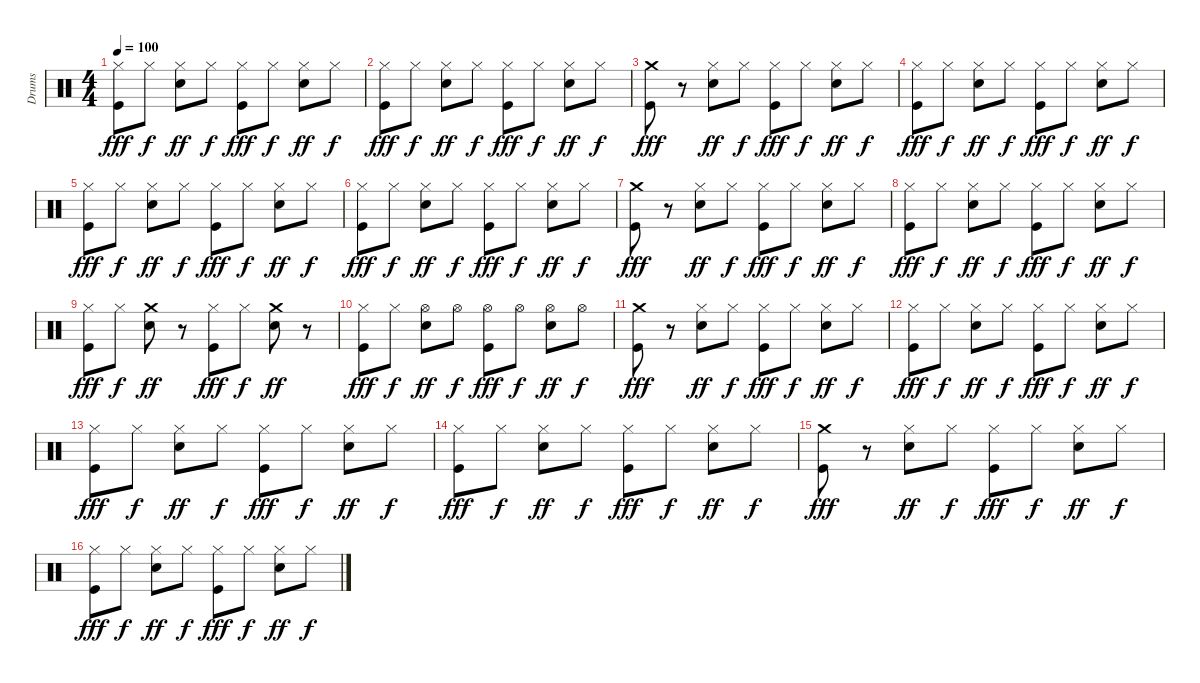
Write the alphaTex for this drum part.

\track ("Drums" "Drums") {instrument percussion}
\staff {score}
\articulation defaults
\ts (4 4)
\tempo 100
\clef neutral
\ks c
("Kick (hit)" "Hi-Hat (closed)").8{dy fff} "Hi-Hat (closed)".8{dy f} ("Snare (hit) 2" "Hi-Hat (closed)").8{dy ff} "Hi-Hat (closed)".8{dy f} ("Kick (hit)" "Hi-Hat (closed)").8{dy fff} "Hi-Hat (closed)".8{dy f} ("Snare (hit) 2" "Hi-Hat (closed)").8{dy ff} "Hi-Hat (closed)".8{dy f} |
("Kick (hit)" "Hi-Hat (closed)").8{dy fff} "Hi-Hat (closed)".8{dy f} ("Snare (hit) 2" "Hi-Hat (closed)").8{dy ff} "Hi-Hat (closed)".8{dy f} ("Kick (hit)" "Hi-Hat (closed)").8{dy fff} "Hi-Hat (closed)".8{dy f} ("Snare (hit) 2" "Hi-Hat (closed)").8{dy ff} "Hi-Hat (closed)".8{dy f} |
("Kick (hit)" "Crash medium (hit)").8{dy fff} r.8 ("Snare (hit) 2" "Hi-Hat (closed)").8{dy ff} "Hi-Hat (closed)".8{dy f} ("Kick (hit)" "Hi-Hat (closed)").8{dy fff} "Hi-Hat (closed)".8{dy f} ("Snare (hit) 2" "Hi-Hat (closed)").8{dy ff} "Hi-Hat (closed)".8{dy f} |
("Kick (hit)" "Hi-Hat (closed)").8{dy fff} "Hi-Hat (closed)".8{dy f} ("Snare (hit) 2" "Hi-Hat (closed)").8{dy ff} "Hi-Hat (closed)".8{dy f} ("Kick (hit)" "Hi-Hat (closed)").8{dy fff} "Hi-Hat (closed)".8{dy f} ("Snare (hit) 2" "Hi-Hat (closed)").8{dy ff} "Hi-Hat (closed)".8{dy f} |
("Kick (hit)" "Hi-Hat (closed)").8{dy fff} "Hi-Hat (closed)".8{dy f} ("Snare (hit) 2" "Hi-Hat (closed)").8{dy ff} "Hi-Hat (closed)".8{dy f} ("Kick (hit)" "Hi-Hat (closed)").8{dy fff} "Hi-Hat (closed)".8{dy f} ("Snare (hit) 2" "Hi-Hat (closed)").8{dy ff} "Hi-Hat (closed)".8{dy f} |
("Kick (hit)" "Hi-Hat (closed)").8{dy fff} "Hi-Hat (closed)".8{dy f} ("Snare (hit) 2" "Hi-Hat (closed)").8{dy ff} "Hi-Hat (closed)".8{dy f} ("Kick (hit)" "Hi-Hat (closed)").8{dy fff} "Hi-Hat (closed)".8{dy f} ("Snare (hit) 2" "Hi-Hat (closed)").8{dy ff} "Hi-Hat (closed)".8{dy f} |
("Kick (hit)" "Crash medium (hit)").8{dy fff} r.8 ("Snare (hit) 2" "Hi-Hat (closed)").8{dy ff} "Hi-Hat (closed)".8{dy f} ("Kick (hit)" "Hi-Hat (closed)").8{dy fff} "Hi-Hat (closed)".8{dy f} ("Snare (hit) 2" "Hi-Hat (closed)").8{dy ff} "Hi-Hat (closed)".8{dy f} |
("Kick (hit)" "Hi-Hat (closed)").8{dy fff} "Hi-Hat (closed)".8{dy f} ("Snare (hit) 2" "Hi-Hat (closed)").8{dy ff} "Hi-Hat (closed)".8{dy f} ("Kick (hit)" "Hi-Hat (closed)").8{dy fff} "Hi-Hat (closed)".8{dy f} ("Snare (hit) 2" "Hi-Hat (closed)").8{dy ff} "Hi-Hat (closed)".8{dy f} |
("Kick (hit)" "Hi-Hat (closed)").8{dy fff} "Hi-Hat (closed)".8{dy f} ("Snare (hit) 2" "Crash medium (hit)").8{dy ff} r.8 ("Kick (hit)" "Hi-Hat (closed)").8{dy fff} "Hi-Hat (closed)".8{dy f} ("Snare (hit) 2" "Crash medium (hit)").8{dy ff} r.8 |
("Kick (hit)" "Hi-Hat (closed)").8{dy fff} "Hi-Hat (closed)".8{dy f} ("Snare (hit) 2" "Hi-Hat (open)").8{dy ff} "Hi-Hat (open)".8{dy f} ("Kick (hit)" "Hi-Hat (open)").8{dy fff} "Hi-Hat (open)".8{dy f} ("Snare (hit) 2" "Hi-Hat (open)").8{dy ff} "Hi-Hat (open)".8{dy f} |
("Kick (hit)" "Crash medium (hit)").8{dy fff} r.8 ("Snare (hit) 2" "Hi-Hat (closed)").8{dy ff} "Hi-Hat (closed)".8{dy f} ("Kick (hit)" "Hi-Hat (closed)").8{dy fff} "Hi-Hat (closed)".8{dy f} ("Snare (hit) 2" "Hi-Hat (closed)").8{dy ff} "Hi-Hat (closed)".8{dy f} |
("Kick (hit)" "Hi-Hat (closed)").8{dy fff} "Hi-Hat (closed)".8{dy f} ("Snare (hit) 2" "Hi-Hat (closed)").8{dy ff} "Hi-Hat (closed)".8{dy f} ("Kick (hit)" "Hi-Hat (closed)").8{dy fff} "Hi-Hat (closed)".8{dy f} ("Snare (hit) 2" "Hi-Hat (closed)").8{dy ff} "Hi-Hat (closed)".8{dy f} |
("Kick (hit)" "Hi-Hat (closed)").8{dy fff} "Hi-Hat (closed)".8{dy f} ("Snare (hit) 2" "Hi-Hat (closed)").8{dy ff} "Hi-Hat (closed)".8{dy f} ("Kick (hit)" "Hi-Hat (closed)").8{dy fff} "Hi-Hat (closed)".8{dy f} ("Snare (hit) 2" "Hi-Hat (closed)").8{dy ff} "Hi-Hat (closed)".8{dy f} |
("Kick (hit)" "Hi-Hat (closed)").8{dy fff} "Hi-Hat (closed)".8{dy f} ("Snare (hit) 2" "Hi-Hat (closed)").8{dy ff} "Hi-Hat (closed)".8{dy f} ("Kick (hit)" "Hi-Hat (closed)").8{dy fff} "Hi-Hat (closed)".8{dy f} ("Snare (hit) 2" "Hi-Hat (closed)").8{dy ff} "Hi-Hat (closed)".8{dy f} |
("Kick (hit)" "Crash medium (hit)").8{dy fff} r.8 ("Snare (hit) 2" "Hi-Hat (closed)").8{dy ff} "Hi-Hat (closed)".8{dy f} ("Kick (hit)" "Hi-Hat (closed)").8{dy fff} "Hi-Hat (closed)".8{dy f} ("Snare (hit) 2" "Hi-Hat (closed)").8{dy ff} "Hi-Hat (closed)".8{dy f} |
("Kick (hit)" "Hi-Hat (closed)").8{dy fff} "Hi-Hat (closed)".8{dy f} ("Snare (hit) 2" "Hi-Hat (closed)").8{dy ff} "Hi-Hat (closed)".8{dy f} ("Kick (hit)" "Hi-Hat (closed)").8{dy fff} "Hi-Hat (closed)".8{dy f} ("Snare (hit) 2" "Hi-Hat (closed)").8{dy ff} "Hi-Hat (closed)".8{dy f}
